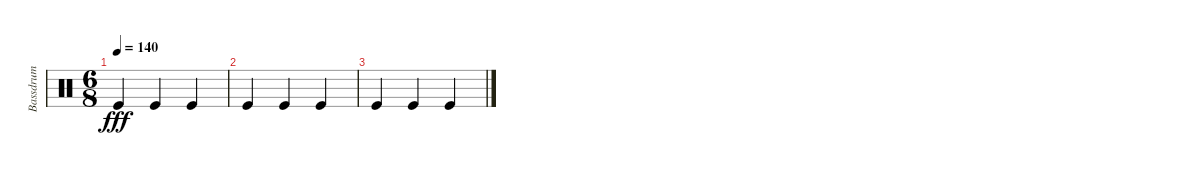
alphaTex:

\track ("Bassdrum" "Bassdrum") {instrument percussion}
\staff {score}
\articulation defaults
\ts (6 8)
\tempo 140
\clef neutral
\ks c "Kick (hit)".4{dy fff} "Kick (hit)".4 "Kick (hit)".4
|
"Kick (hit)".4 "Kick (hit)".4 "Kick (hit)".4 |
"Kick (hit)".4 "Kick (hit)".4 "Kick (hit)".4
